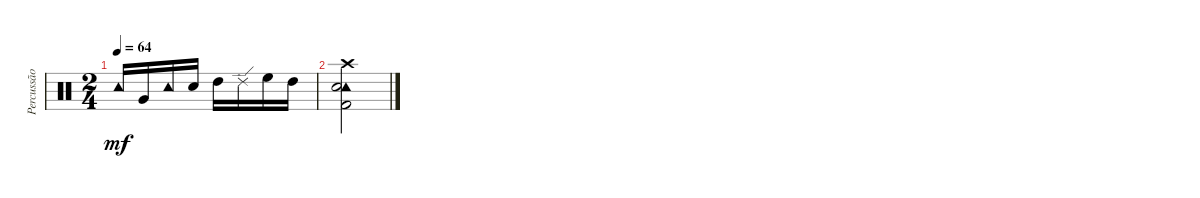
\track ("Percussão" "Percussão") {instrument percussion}
\staff {score}
\articulation defaults
\ts (2 4)
\tempo 64
\clef neutral
\ks c "Tambourine (hit)".16{dy mf} "Very Low Tom (hit)".16 "Tambourine (hit)".16 "Snare (hit) 2".16 "High Tom (hit)".16 "Ride (edge) 2".16 "High Floor Tom (hit)".16 "High Tom (hit)".16
|
("Kick (hit) 2" "Tambourine (hit)" "Crash high (hit)" "Snare (hit) 2").2
